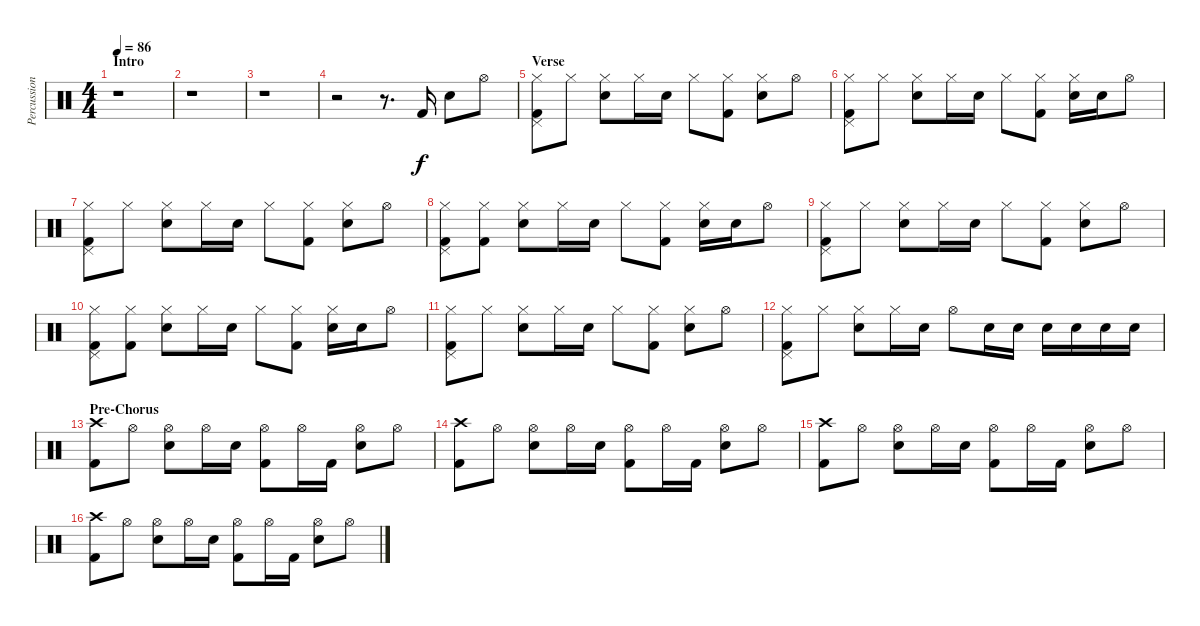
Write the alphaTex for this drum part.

\track ("Percussions (from MIDI)" "Percussion") {instrument percussion}
\staff {score}
\articulation defaults
\ts (4 4)
\section ("" "Intro")
\tempo 86
\clef neutral
\ks c
r.1{dy f} |
r.1 |
r.1 |
r.2 r.8{d} "Kick (hit) 2".16 "Electric Snare (hit)".8 "Hi-Hat (open)".8 |
\section ("" "Verse")
("Hi-Hat (closed)" "Kick (hit) 2" "Pedal Hi-Hat (hit)").8 "Hi-Hat (closed)".8 ("Hi-Hat (closed)" "Electric Snare (hit)").8 "Hi-Hat (closed)".16 "Electric Snare (hit)".16 "Hi-Hat (closed)".8 ("Hi-Hat (closed)" "Kick (hit) 2").8 ("Hi-Hat (closed)" "Electric Snare (hit)").8 "Hi-Hat (open)".8 |
("Hi-Hat (closed)" "Kick (hit) 2" "Pedal Hi-Hat (hit)").8 "Hi-Hat (closed)".8 ("Hi-Hat (closed)" "Electric Snare (hit)").8 "Hi-Hat (closed)".16 "Electric Snare (hit)".16 "Hi-Hat (closed)".8 ("Hi-Hat (closed)" "Kick (hit) 2").8 ("Hi-Hat (closed)" "Electric Snare (hit)").16 "Electric Snare (hit)".16 "Hi-Hat (open)".8 |
("Hi-Hat (closed)" "Kick (hit) 2" "Pedal Hi-Hat (hit)").8 "Hi-Hat (closed)".8 ("Hi-Hat (closed)" "Electric Snare (hit)").8 "Hi-Hat (closed)".16 "Electric Snare (hit)".16 "Hi-Hat (closed)".8 ("Hi-Hat (closed)" "Kick (hit) 2").8 ("Hi-Hat (closed)" "Electric Snare (hit)").8 "Hi-Hat (open)".8 |
("Hi-Hat (closed)" "Kick (hit) 2" "Pedal Hi-Hat (hit)").8 ("Hi-Hat (closed)" "Kick (hit) 2").8 ("Hi-Hat (closed)" "Electric Snare (hit)").8 "Hi-Hat (closed)".16 "Electric Snare (hit)".16 "Hi-Hat (closed)".8 ("Hi-Hat (closed)" "Kick (hit) 2").8 ("Hi-Hat (closed)" "Electric Snare (hit)").16 "Electric Snare (hit)".16 "Hi-Hat (open)".8 |
("Hi-Hat (closed)" "Kick (hit) 2" "Pedal Hi-Hat (hit)").8 "Hi-Hat (closed)".8 ("Hi-Hat (closed)" "Electric Snare (hit)").8 "Hi-Hat (closed)".16 "Electric Snare (hit)".16 "Hi-Hat (closed)".8 ("Hi-Hat (closed)" "Kick (hit) 2").8 ("Hi-Hat (closed)" "Electric Snare (hit)").8 "Hi-Hat (open)".8 |
("Hi-Hat (closed)" "Kick (hit) 2" "Pedal Hi-Hat (hit)").8 ("Hi-Hat (closed)" "Kick (hit) 2").8 ("Hi-Hat (closed)" "Electric Snare (hit)").8 "Hi-Hat (closed)".16 "Electric Snare (hit)".16 "Hi-Hat (closed)".8 ("Hi-Hat (closed)" "Kick (hit) 2").8 ("Hi-Hat (closed)" "Electric Snare (hit)").16 "Electric Snare (hit)".16 "Hi-Hat (open)".8 |
("Hi-Hat (closed)" "Kick (hit) 2" "Pedal Hi-Hat (hit)").8 "Hi-Hat (closed)".8 ("Hi-Hat (closed)" "Electric Snare (hit)").8 "Hi-Hat (closed)".16 "Electric Snare (hit)".16 "Hi-Hat (closed)".8 ("Hi-Hat (closed)" "Kick (hit) 2").8 ("Hi-Hat (closed)" "Electric Snare (hit)").8 "Hi-Hat (open)".8 |
("Hi-Hat (closed)" "Kick (hit) 2" "Pedal Hi-Hat (hit)").8 "Hi-Hat (closed)".8 ("Hi-Hat (closed)" "Electric Snare (hit)").8 "Hi-Hat (closed)".16 "Electric Snare (hit)".16 "Hi-Hat (open)".8 "Electric Snare (hit)".16 "Electric Snare (hit)".16 "Electric Snare (hit)".16 "Electric Snare (hit)".16 "Electric Snare (hit)".16 "Electric Snare (hit)".16 |
\section ("" "Pre-Chorus")
("Crash high (hit)" "Kick (hit) 2").8 "Hi-Hat (open)".8 ("Hi-Hat (open)" "Electric Snare (hit)").8 "Hi-Hat (open)".16 "Electric Snare (hit)".16 ("Hi-Hat (open)" "Kick (hit) 2").8 "Hi-Hat (open)".16 "Kick (hit) 2".16 ("Hi-Hat (open)" "Electric Snare (hit)").8 "Hi-Hat (open)".8 |
("Crash high (hit)" "Kick (hit) 2").8 "Hi-Hat (open)".8 ("Hi-Hat (open)" "Electric Snare (hit)").8 "Hi-Hat (open)".16 "Electric Snare (hit)".16 ("Hi-Hat (open)" "Kick (hit) 2").8 "Hi-Hat (open)".16 "Kick (hit) 2".16 ("Hi-Hat (open)" "Electric Snare (hit)").8 "Hi-Hat (open)".8 |
("Crash high (hit)" "Kick (hit) 2").8 "Hi-Hat (open)".8 ("Hi-Hat (open)" "Electric Snare (hit)").8 "Hi-Hat (open)".16 "Electric Snare (hit)".16 ("Hi-Hat (open)" "Kick (hit) 2").8 "Hi-Hat (open)".16 "Kick (hit) 2".16 ("Hi-Hat (open)" "Electric Snare (hit)").8 "Hi-Hat (open)".8 |
("Crash high (hit)" "Kick (hit) 2").8 "Hi-Hat (open)".8 ("Hi-Hat (open)" "Electric Snare (hit)").8 "Hi-Hat (open)".16 "Electric Snare (hit)".16 ("Hi-Hat (open)" "Kick (hit) 2").8 "Hi-Hat (open)".16 "Kick (hit) 2".16 ("Hi-Hat (open)" "Electric Snare (hit)").8 "Hi-Hat (open)".8
